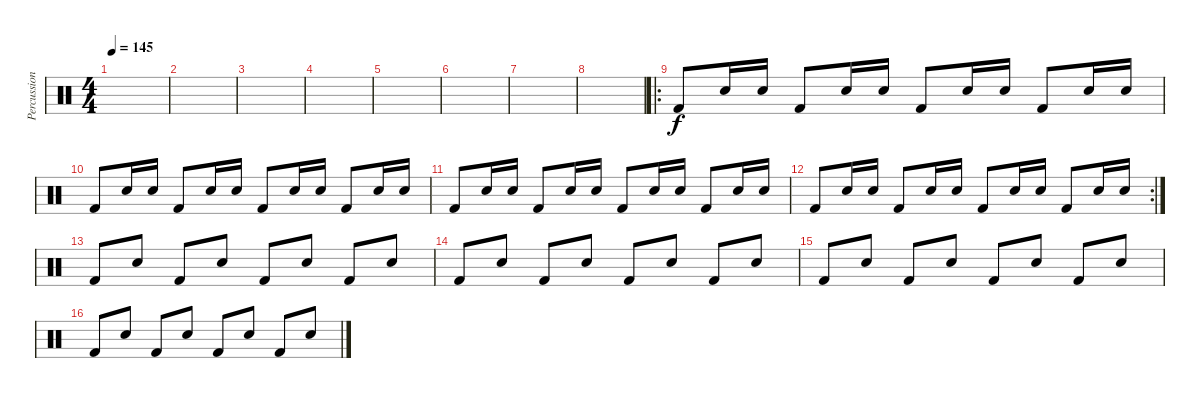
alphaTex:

\track ("Percussions" "Percussion") {instrument percussion}
\staff {score}
\articulation defaults
\ts (4 4)
\tempo 145
\clef neutral
\ks c
|
|
|
|
|
|
|
|
\ro "Kick (hit) 2".8 "Electric Snare (hit)".16 "Electric Snare (hit)".16 "Kick (hit) 2".8 "Electric Snare (hit)".16 "Electric Snare (hit)".16 "Kick (hit) 2".8 "Electric Snare (hit)".16 "Electric Snare (hit)".16 "Kick (hit) 2".8 "Electric Snare (hit)".16 "Electric Snare (hit)".16
|
"Kick (hit) 2".8 "Electric Snare (hit)".16 "Electric Snare (hit)".16 "Kick (hit) 2".8 "Electric Snare (hit)".16 "Electric Snare (hit)".16 "Kick (hit) 2".8 "Electric Snare (hit)".16 "Electric Snare (hit)".16 "Kick (hit) 2".8 "Electric Snare (hit)".16 "Electric Snare (hit)".16 |
"Kick (hit) 2".8 "Electric Snare (hit)".16 "Electric Snare (hit)".16 "Kick (hit) 2".8 "Electric Snare (hit)".16 "Electric Snare (hit)".16 "Kick (hit) 2".8 "Electric Snare (hit)".16 "Electric Snare (hit)".16 "Kick (hit) 2".8 "Electric Snare (hit)".16 "Electric Snare (hit)".16 |
\rc 2 "Kick (hit) 2".8 "Electric Snare (hit)".16 "Electric Snare (hit)".16 "Kick (hit) 2".8 "Electric Snare (hit)".16 "Electric Snare (hit)".16 "Kick (hit) 2".8 "Electric Snare (hit)".16 "Electric Snare (hit)".16 "Kick (hit) 2".8 "Electric Snare (hit)".16 "Electric Snare (hit)".16
|
"Kick (hit) 2".8 "Electric Snare (hit)".8 "Kick (hit) 2".8 "Electric Snare (hit)".8 "Kick (hit) 2".8 "Electric Snare (hit)".8 "Kick (hit) 2".8 "Electric Snare (hit)".8 |
"Kick (hit) 2".8 "Electric Snare (hit)".8 "Kick (hit) 2".8 "Electric Snare (hit)".8 "Kick (hit) 2".8 "Electric Snare (hit)".8 "Kick (hit) 2".8 "Electric Snare (hit)".8 |
"Kick (hit) 2".8 "Electric Snare (hit)".8 "Kick (hit) 2".8 "Electric Snare (hit)".8 "Kick (hit) 2".8 "Electric Snare (hit)".8 "Kick (hit) 2".8 "Electric Snare (hit)".8 |
"Kick (hit) 2".8 "Electric Snare (hit)".8 "Kick (hit) 2".8 "Electric Snare (hit)".8 "Kick (hit) 2".8 "Electric Snare (hit)".8 "Kick (hit) 2".8 "Electric Snare (hit)".8
